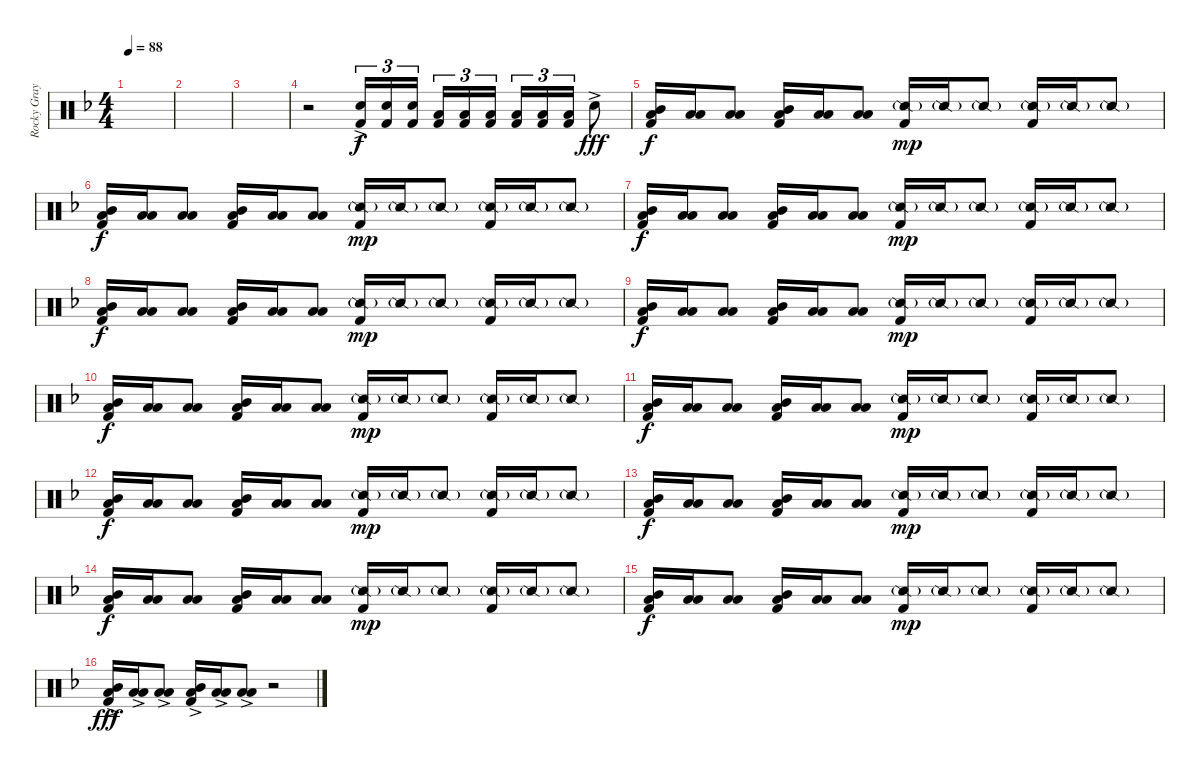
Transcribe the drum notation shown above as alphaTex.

\track ("Rocky Gray" "Rocky Gray") {instrument percussion}
\staff {score}
\articulation defaults
\ts (4 4)
\tempo 88
\clef neutral
\ks f
|
|
|
r.2 ("Snare (hit) 2"{ac} "Kick (hit) 2").16{tu (3 2)} ("Snare (hit) 2" "Kick (hit) 2").16{tu (3 2) dy f} ("Snare (hit) 2" "Kick (hit) 2").16{tu (3 2)} ("Low Tom (hit)" "Kick (hit) 2").16{tu (3 2)} ("Low Tom (hit)" "Kick (hit) 2").16{tu (3 2)} ("Low Tom (hit)" "Kick (hit) 2").16{tu (3 2)} ("Low Floor Tom (hit)" "Kick (hit) 2").16{tu (3 2)} ("Low Floor Tom (hit)" "Kick (hit) 2").16{tu (3 2)} ("Low Floor Tom (hit)" "Kick (hit) 2").16{tu (3 2)} "Snare (hit) 2"{ac}.8{dy fff} |
("Mid Tom (hit)" "Low Floor Tom (hit)" "Kick (hit) 2").16{dy f} ("Low Tom (hit)" "Low Floor Tom (hit)").16 ("Low Tom (hit)" "Low Floor Tom (hit)").8 ("Mid Tom (hit)" "Low Floor Tom (hit)" "Kick (hit) 2").16 ("Low Tom (hit)" "Low Floor Tom (hit)").16 ("Low Tom (hit)" "Low Floor Tom (hit)").8 ("Snare (side stick) 2"{g} "Kick (hit) 2").16{dy mp} "Snare (side stick) 2"{g}.16 "Snare (side stick) 2"{g}.8 ("Snare (side stick) 2"{g} "Kick (hit) 2").16 "Snare (side stick) 2"{g}.16 "Snare (side stick) 2"{g}.8 |
("Mid Tom (hit)" "Low Floor Tom (hit)" "Kick (hit) 2").16{dy f} ("Low Tom (hit)" "Low Floor Tom (hit)").16 ("Low Tom (hit)" "Low Floor Tom (hit)").8 ("Mid Tom (hit)" "Low Floor Tom (hit)" "Kick (hit) 2").16 ("Low Tom (hit)" "Low Floor Tom (hit)").16 ("Low Tom (hit)" "Low Floor Tom (hit)").8 ("Snare (side stick) 2"{g} "Kick (hit) 2").16{dy mp} "Snare (side stick) 2"{g}.16 "Snare (side stick) 2"{g}.8 ("Snare (side stick) 2"{g} "Kick (hit) 2").16 "Snare (side stick) 2"{g}.16 "Snare (side stick) 2"{g}.8 |
("Mid Tom (hit)" "Low Floor Tom (hit)" "Kick (hit) 2").16{dy f} ("Low Tom (hit)" "Low Floor Tom (hit)").16 ("Low Tom (hit)" "Low Floor Tom (hit)").8 ("Mid Tom (hit)" "Low Floor Tom (hit)" "Kick (hit) 2").16 ("Low Tom (hit)" "Low Floor Tom (hit)").16 ("Low Tom (hit)" "Low Floor Tom (hit)").8 ("Snare (side stick) 2"{g} "Kick (hit) 2").16{dy mp} "Snare (side stick) 2"{g}.16 "Snare (side stick) 2"{g}.8 ("Snare (side stick) 2"{g} "Kick (hit) 2").16 "Snare (side stick) 2"{g}.16 "Snare (side stick) 2"{g}.8 |
("Mid Tom (hit)" "Low Floor Tom (hit)" "Kick (hit) 2").16{dy f} ("Low Tom (hit)" "Low Floor Tom (hit)").16 ("Low Tom (hit)" "Low Floor Tom (hit)").8 ("Mid Tom (hit)" "Low Floor Tom (hit)" "Kick (hit) 2").16 ("Low Tom (hit)" "Low Floor Tom (hit)").16 ("Low Tom (hit)" "Low Floor Tom (hit)").8 ("Snare (side stick) 2"{g} "Kick (hit) 2").16{dy mp} "Snare (side stick) 2"{g}.16 "Snare (side stick) 2"{g}.8 ("Snare (side stick) 2"{g} "Kick (hit) 2").16 "Snare (side stick) 2"{g}.16 "Snare (side stick) 2"{g}.8 |
("Mid Tom (hit)" "Low Floor Tom (hit)" "Kick (hit) 2").16{dy f} ("Low Tom (hit)" "Low Floor Tom (hit)").16 ("Low Tom (hit)" "Low Floor Tom (hit)").8 ("Mid Tom (hit)" "Low Floor Tom (hit)" "Kick (hit) 2").16 ("Low Tom (hit)" "Low Floor Tom (hit)").16 ("Low Tom (hit)" "Low Floor Tom (hit)").8 ("Snare (side stick) 2"{g} "Kick (hit) 2").16{dy mp} "Snare (side stick) 2"{g}.16 "Snare (side stick) 2"{g}.8 ("Snare (side stick) 2"{g} "Kick (hit) 2").16 "Snare (side stick) 2"{g}.16 "Snare (side stick) 2"{g}.8 |
("Mid Tom (hit)" "Low Floor Tom (hit)" "Kick (hit) 2").16{dy f} ("Low Tom (hit)" "Low Floor Tom (hit)").16 ("Low Tom (hit)" "Low Floor Tom (hit)").8 ("Mid Tom (hit)" "Low Floor Tom (hit)" "Kick (hit) 2").16 ("Low Tom (hit)" "Low Floor Tom (hit)").16 ("Low Tom (hit)" "Low Floor Tom (hit)").8 ("Snare (side stick) 2"{g} "Kick (hit) 2").16{dy mp} "Snare (side stick) 2"{g}.16 "Snare (side stick) 2"{g}.8 ("Snare (side stick) 2"{g} "Kick (hit) 2").16 "Snare (side stick) 2"{g}.16 "Snare (side stick) 2"{g}.8 |
("Mid Tom (hit)" "Low Floor Tom (hit)" "Kick (hit) 2").16{dy f} ("Low Tom (hit)" "Low Floor Tom (hit)").16 ("Low Tom (hit)" "Low Floor Tom (hit)").8 ("Mid Tom (hit)" "Low Floor Tom (hit)" "Kick (hit) 2").16 ("Low Tom (hit)" "Low Floor Tom (hit)").16 ("Low Tom (hit)" "Low Floor Tom (hit)").8 ("Snare (side stick) 2"{g} "Kick (hit) 2").16{dy mp} "Snare (side stick) 2"{g}.16 "Snare (side stick) 2"{g}.8 ("Snare (side stick) 2"{g} "Kick (hit) 2").16 "Snare (side stick) 2"{g}.16 "Snare (side stick) 2"{g}.8 |
("Mid Tom (hit)" "Low Floor Tom (hit)" "Kick (hit) 2").16{dy f} ("Low Tom (hit)" "Low Floor Tom (hit)").16 ("Low Tom (hit)" "Low Floor Tom (hit)").8 ("Mid Tom (hit)" "Low Floor Tom (hit)" "Kick (hit) 2").16 ("Low Tom (hit)" "Low Floor Tom (hit)").16 ("Low Tom (hit)" "Low Floor Tom (hit)").8 ("Snare (side stick) 2"{g} "Kick (hit) 2").16{dy mp} "Snare (side stick) 2"{g}.16 "Snare (side stick) 2"{g}.8 ("Snare (side stick) 2"{g} "Kick (hit) 2").16 "Snare (side stick) 2"{g}.16 "Snare (side stick) 2"{g}.8 |
("Mid Tom (hit)" "Low Floor Tom (hit)" "Kick (hit) 2").16{dy f} ("Low Tom (hit)" "Low Floor Tom (hit)").16 ("Low Tom (hit)" "Low Floor Tom (hit)").8 ("Mid Tom (hit)" "Low Floor Tom (hit)" "Kick (hit) 2").16 ("Low Tom (hit)" "Low Floor Tom (hit)").16 ("Low Tom (hit)" "Low Floor Tom (hit)").8 ("Snare (side stick) 2"{g} "Kick (hit) 2").16{dy mp} "Snare (side stick) 2"{g}.16 "Snare (side stick) 2"{g}.8 ("Snare (side stick) 2"{g} "Kick (hit) 2").16 "Snare (side stick) 2"{g}.16 "Snare (side stick) 2"{g}.8 |
("Mid Tom (hit)" "Low Floor Tom (hit)" "Kick (hit) 2").16{dy f} ("Low Tom (hit)" "Low Floor Tom (hit)").16 ("Low Tom (hit)" "Low Floor Tom (hit)").8 ("Mid Tom (hit)" "Low Floor Tom (hit)" "Kick (hit) 2").16 ("Low Tom (hit)" "Low Floor Tom (hit)").16 ("Low Tom (hit)" "Low Floor Tom (hit)").8 ("Snare (side stick) 2"{g} "Kick (hit) 2").16{dy mp} "Snare (side stick) 2"{g}.16 "Snare (side stick) 2"{g}.8 ("Snare (side stick) 2"{g} "Kick (hit) 2").16 "Snare (side stick) 2"{g}.16 "Snare (side stick) 2"{g}.8 |
("Mid Tom (hit)" "Low Floor Tom (hit)" "Kick (hit) 2").16{dy f} ("Low Tom (hit)" "Low Floor Tom (hit)").16 ("Low Tom (hit)" "Low Floor Tom (hit)").8 ("Mid Tom (hit)" "Low Floor Tom (hit)" "Kick (hit) 2").16 ("Low Tom (hit)" "Low Floor Tom (hit)").16 ("Low Tom (hit)" "Low Floor Tom (hit)").8 ("Snare (side stick) 2"{g} "Kick (hit) 2").16{dy mp} "Snare (side stick) 2"{g}.16 "Snare (side stick) 2"{g}.8 ("Snare (side stick) 2"{g} "Kick (hit) 2").16 "Snare (side stick) 2"{g}.16 "Snare (side stick) 2"{g}.8 |
("Mid Tom (hit)"{ac} "Low Floor Tom (hit)"{ac} "Kick (hit) 2"{ac}).16{dy fff} ("Low Tom (hit)"{ac} "Low Floor Tom (hit)"{ac}).16 ("Low Tom (hit)"{ac} "Low Floor Tom (hit)"{ac}).8 ("Mid Tom (hit)"{ac} "Low Floor Tom (hit)"{ac} "Kick (hit) 2"{ac}).16 ("Low Tom (hit)"{ac} "Low Floor Tom (hit)"{ac}).16 ("Low Tom (hit)"{ac} "Low Floor Tom (hit)"{ac}).8 r.2
